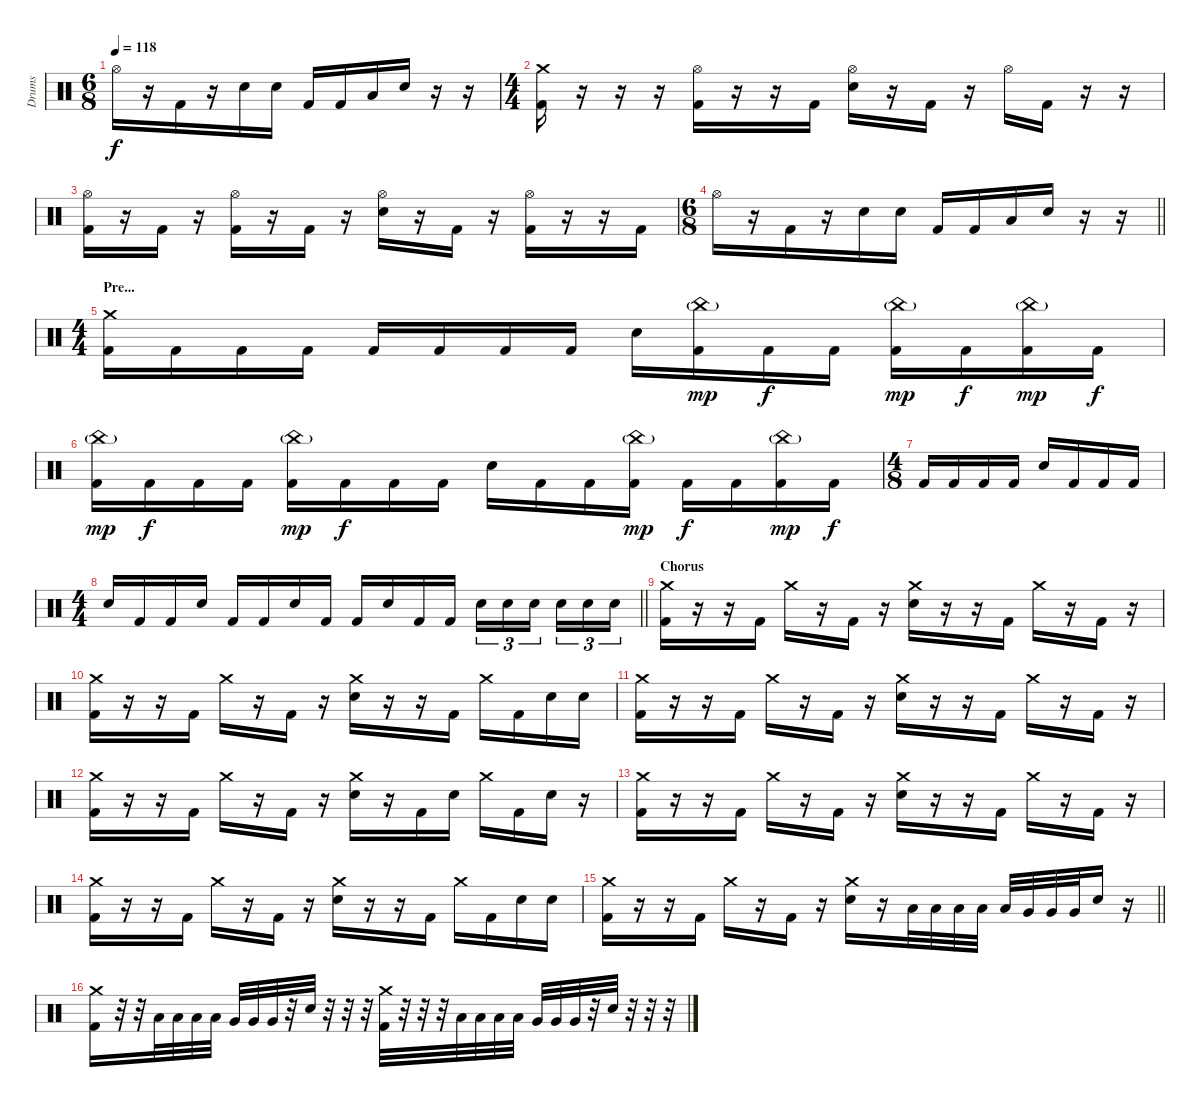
\track ("Drums" "Drums") {instrument percussion}
\staff {score}
\articulation defaults
\ts (6 8)
\tempo 118
\clef neutral
\ks c "Hi-Hat (open)".16{dy f}
r.16 "Kick (hit) 2".16 r.16 "Electric Snare (hit)".16 "Electric Snare (hit)".16 "Kick (hit) 2".16 "Kick (hit) 2".16 "Low Tom (hit)".16 "Electric Snare (hit)".16 r.16 r.16 |
\ts (4 4)
("Crash medium (hit)" "Kick (hit) 2").16 r.16 r.16 r.16 ("Hi-Hat (open)" "Kick (hit) 2").16 r.16 r.16 "Kick (hit) 2".16 ("Hi-Hat (open)" "Electric Snare (hit)").16 r.16 "Kick (hit) 2".16 r.16 "Hi-Hat (open)".16 "Kick (hit) 2".16 r.16 r.16 |
("Hi-Hat (open)" "Kick (hit) 2").16 r.16 "Kick (hit) 2".16 r.16 ("Hi-Hat (open)" "Kick (hit) 2").16 r.16 "Kick (hit) 2".16 r.16 ("Hi-Hat (open)" "Electric Snare (hit)").16 r.16 "Kick (hit) 2".16 r.16 ("Hi-Hat (open)" "Kick (hit) 2").16 r.16 r.16 "Kick (hit) 2".16 |
\ts (6 8)
\barLineRight lightlight "Hi-Hat (open)".16
r.16 "Kick (hit) 2".16 r.16 "Electric Snare (hit)".16 "Electric Snare (hit)".16 "Kick (hit) 2".16 "Kick (hit) 2".16 "Low Tom (hit)".16 "Electric Snare (hit)".16 r.16 r.16 |
\ts (4 4)
\section ("" "Pre...")
("Crash medium (hit)" "Kick (hit) 2").16 "Kick (hit) 2".16 "Kick (hit) 2".16 "Kick (hit) 2".16 "Kick (hit) 2".16 "Kick (hit) 2".16 "Kick (hit) 2".16 "Kick (hit) 2".16 "Electric Snare (hit)".16 ("China (hit)"{g} "Kick (hit) 2").16{dy mp} "Kick (hit) 2".16{dy f} "Kick (hit) 2".16 ("China (hit)"{g} "Kick (hit) 2").16{dy mp} "Kick (hit) 2".16{dy f} ("China (hit)"{g} "Kick (hit) 2").16{dy mp} "Kick (hit) 2".16{dy f} |
("China (hit)"{g} "Kick (hit) 2").16{dy mp} "Kick (hit) 2".16{dy f} "Kick (hit) 2".16 "Kick (hit) 2".16 ("China (hit)"{g} "Kick (hit) 2").16{dy mp} "Kick (hit) 2".16{dy f} "Kick (hit) 2".16 "Kick (hit) 2".16 "Electric Snare (hit)".16 "Kick (hit) 2".16 "Kick (hit) 2".16 ("China (hit)"{g} "Kick (hit) 2").16{dy mp} "Kick (hit) 2".16{dy f} "Kick (hit) 2".16 ("China (hit)"{g} "Kick (hit) 2").16{dy mp} "Kick (hit) 2".16{dy f} |
\ts (4 8)
"Kick (hit) 2".16 "Kick (hit) 2".16 "Kick (hit) 2".16 "Kick (hit) 2".16 "Electric Snare (hit)".16 "Kick (hit) 2".16 "Kick (hit) 2".16 "Kick (hit) 2".16 |
\ts (4 4)
\barLineRight lightlight "Electric Snare (hit)".16 "Kick (hit) 2".16 "Kick (hit) 2".16 "Electric Snare (hit)".16 "Kick (hit) 2".16 "Kick (hit) 2".16 "Electric Snare (hit)".16 "Kick (hit) 2".16 "Kick (hit) 2".16 "Electric Snare (hit)".16 "Kick (hit) 2".16 "Kick (hit) 2".16 "Electric Snare (hit)".16{tu (3 2)} "Electric Snare (hit)".16{tu (3 2)} "Electric Snare (hit)".16{tu (3 2) beam splitsecondary} "Electric Snare (hit)".16{tu (3 2)} "Electric Snare (hit)".16{tu (3 2)} "Electric Snare (hit)".16{tu (3 2)}
|
\section ("" "Chorus")
("Crash medium (hit)" "Kick (hit) 2").16 r.16 r.16 "Kick (hit) 2".16 "Crash medium (hit)".16 r.16 "Kick (hit) 2".16 r.16 ("Crash medium (hit)" "Electric Snare (hit)").16 r.16 r.16 "Kick (hit) 2".16 "Crash medium (hit)".16 r.16 "Kick (hit) 2".16 r.16 |
("Crash medium (hit)" "Kick (hit) 2").16 r.16 r.16 "Kick (hit) 2".16 "Crash medium (hit)".16 r.16 "Kick (hit) 2".16 r.16 ("Crash medium (hit)" "Electric Snare (hit)").16 r.16 r.16 "Kick (hit) 2".16 "Crash medium (hit)".16 "Kick (hit) 2".16 "Electric Snare (hit)".16 "Electric Snare (hit)".16 |
("Crash medium (hit)" "Kick (hit) 2").16 r.16 r.16 "Kick (hit) 2".16 "Crash medium (hit)".16 r.16 "Kick (hit) 2".16 r.16 ("Crash medium (hit)" "Electric Snare (hit)").16 r.16 r.16 "Kick (hit) 2".16 "Crash medium (hit)".16 r.16 "Kick (hit) 2".16 r.16 |
("Crash medium (hit)" "Kick (hit) 2").16 r.16 r.16 "Kick (hit) 2".16 "Crash medium (hit)".16 r.16 "Kick (hit) 2".16 r.16 ("Crash medium (hit)" "Electric Snare (hit)").16 r.16 "Kick (hit) 2".16 "Electric Snare (hit)".16 "Crash medium (hit)".16 "Kick (hit) 2".16 "Electric Snare (hit)".16 r.16 |
("Crash medium (hit)" "Kick (hit) 2").16 r.16 r.16 "Kick (hit) 2".16 "Crash medium (hit)".16 r.16 "Kick (hit) 2".16 r.16 ("Crash medium (hit)" "Electric Snare (hit)").16 r.16 r.16 "Kick (hit) 2".16 "Crash medium (hit)".16 r.16 "Kick (hit) 2".16 r.16 |
("Crash medium (hit)" "Kick (hit) 2").16 r.16 r.16 "Kick (hit) 2".16 "Crash medium (hit)".16 r.16 "Kick (hit) 2".16 r.16 ("Crash medium (hit)" "Electric Snare (hit)").16 r.16 r.16 "Kick (hit) 2".16 "Crash medium (hit)".16 "Kick (hit) 2".16 "Electric Snare (hit)".16 "Electric Snare (hit)".16 |
\barLineRight lightlight
("Crash medium (hit)" "Kick (hit) 2").16 r.16 r.16 "Kick (hit) 2".16 "Crash medium (hit)".16 r.16 "Kick (hit) 2".16 r.16 ("Crash medium (hit)" "Electric Snare (hit)").16 r.16 "Low Tom (hit)".32 "Low Tom (hit)".32 "Low Tom (hit)".32 "Low Tom (hit)".32 "Low Tom (hit)".32 "Very Low Tom (hit)".32 "Very Low Tom (hit)".32 "Very Low Tom (hit)".32 "Electric Snare (hit)".16 r.16 |
("Crash medium (hit)" "Kick (hit) 2").16 r.32 r.32 "Low Tom (hit)".32 "Low Tom (hit)".32 "Low Tom (hit)".32 "Low Tom (hit)".32 "Very Low Tom (hit)".32 "Very Low Tom (hit)".32 "Very Low Tom (hit)".32 r.32 "Electric Snare (hit)".32 r.32 r.32 r.32 ("Crash medium (hit)" "Kick (hit) 2").32 r.32 r.32 r.32 "Low Tom (hit)".32 "Low Tom (hit)".32 "Low Tom (hit)".32 "Low Tom (hit)".32 "Very Low Tom (hit)".32 "Very Low Tom (hit)".32 "Very Low Tom (hit)".32 r.32 "Electric Snare (hit)".32 r.32 r.32 r.32
